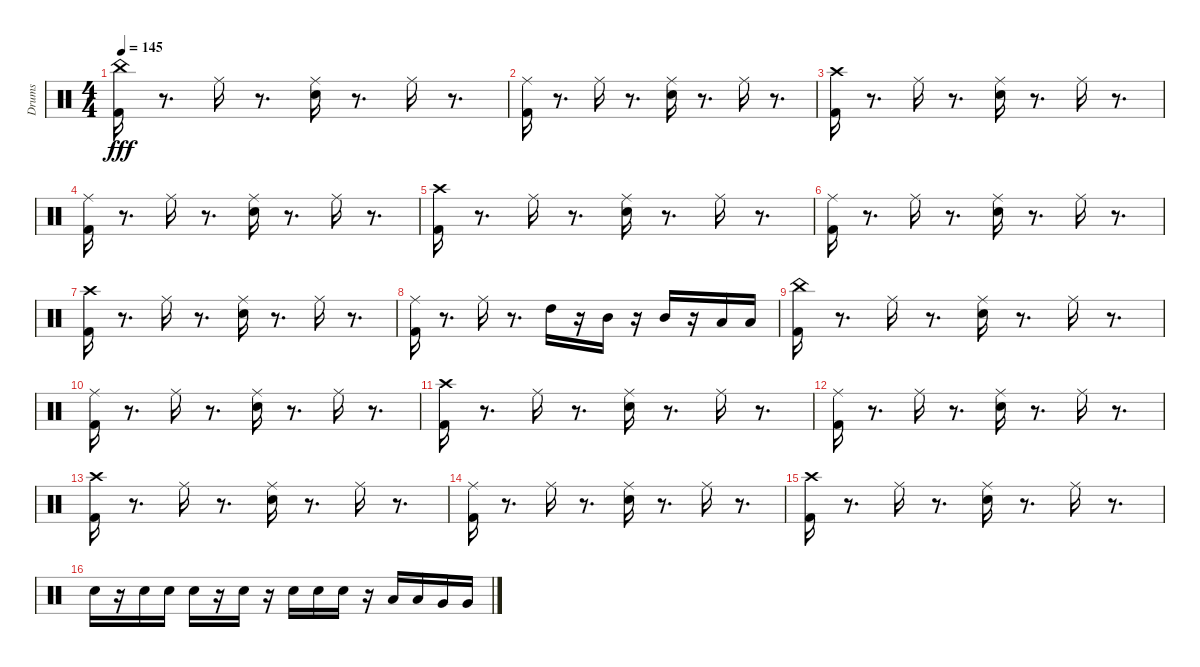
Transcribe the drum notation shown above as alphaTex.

\track ("Drums" "Drums") {instrument percussion}
\staff {score}
\articulation defaults
\ts (4 4)
\tempo 145
\clef neutral
\ks c
("Kick (hit) 2" "China (hit)").16{dy fff} r.8{d} "Ride (middle)".16 r.8{d} ("Electric Snare (hit)" "Ride (middle)").16 r.8{d} "Ride (middle)".16 r.8{d} |
("Ride (middle)" "Kick (hit) 2").16 r.8{d} "Ride (middle)".16 r.8{d} ("Ride (middle)" "Electric Snare (hit)").16 r.8{d} "Ride (middle)".16 r.8{d} |
("Crash high (hit)" "Kick (hit) 2").16 r.8{d} "Ride (middle)".16 r.8{d} ("Ride (middle)" "Electric Snare (hit)").16 r.8{d} "Ride (middle)".16 r.8{d} |
("Kick (hit) 2" "Ride (middle)").16 r.8{d} "Ride (middle)".16 r.8{d} ("Electric Snare (hit)" "Ride (middle)").16 r.8{d} "Ride (middle)".16 r.8{d} |
("Kick (hit) 2" "Crash high (hit)").16 r.8{d} "Ride (middle)".16 r.8{d} ("Electric Snare (hit)" "Ride (middle)").16 r.8{d} "Ride (middle)".16 r.8{d} |
("Ride (middle)" "Kick (hit) 2").16 r.8{d} "Ride (middle)".16 r.8{d} ("Ride (middle)" "Electric Snare (hit)").16 r.8{d} "Ride (middle)".16 r.8{d} |
("Kick (hit) 2" "Crash high (hit)").16 r.8{d} "Ride (middle)".16 r.8{d} ("Electric Snare (hit)" "Ride (middle)").16 r.8{d} "Ride (middle)".16 r.8{d} |
("Ride (middle)" "Kick (hit) 2").16 r.8{d} "Ride (middle)".16 r.8{d} "High Tom (hit)".16 r.16 "Mid Tom (hit)".16 r.16 "Mid Tom (hit)".16 r.16 "Low Tom (hit)".16 "Low Tom (hit)".16 |
("China (hit)" "Kick (hit) 2").16 r.8{d} "Ride (middle)".16 r.8{d} ("Ride (middle)" "Electric Snare (hit)").16 r.8{d} "Ride (middle)".16 r.8{d} |
("Kick (hit) 2" "Ride (middle)").16 r.8{d} "Ride (middle)".16 r.8{d} ("Electric Snare (hit)" "Ride (middle)").16 r.8{d} "Ride (middle)".16 r.8{d} |
("Kick (hit) 2" "Crash high (hit)").16 r.8{d} "Ride (middle)".16 r.8{d} ("Electric Snare (hit)" "Ride (middle)").16 r.8{d} "Ride (middle)".16 r.8{d} |
("Ride (middle)" "Kick (hit) 2").16 r.8{d} "Ride (middle)".16 r.8{d} ("Ride (middle)" "Electric Snare (hit)").16 r.8{d} "Ride (middle)".16 r.8{d} |
("Crash high (hit)" "Kick (hit) 2").16 r.8{d} "Ride (middle)".16 r.8{d} ("Ride (middle)" "Electric Snare (hit)").16 r.8{d} "Ride (middle)".16 r.8{d} |
("Kick (hit) 2" "Ride (middle)").16 r.8{d} "Ride (middle)".16 r.8{d} ("Electric Snare (hit)" "Ride (middle)").16 r.8{d} "Ride (middle)".16 r.8{d} |
("Crash high (hit)" "Kick (hit) 2").16 r.8{d} "Ride (middle)".16 r.8{d} ("Ride (middle)" "Electric Snare (hit)").16 r.8{d} "Ride (middle)".16 r.8{d} |
"Electric Snare (hit)".16 r.16 "Electric Snare (hit)".16 "Electric Snare (hit)".16 "Electric Snare (hit)".16 r.16 "Electric Snare (hit)".16 r.16 "Electric Snare (hit)".16 "Electric Snare (hit)".16 "Electric Snare (hit)".16 r.16 "Low Tom (hit)".16 "Low Tom (hit)".16 "Very Low Tom (hit)".16 "Very Low Tom (hit)".16
